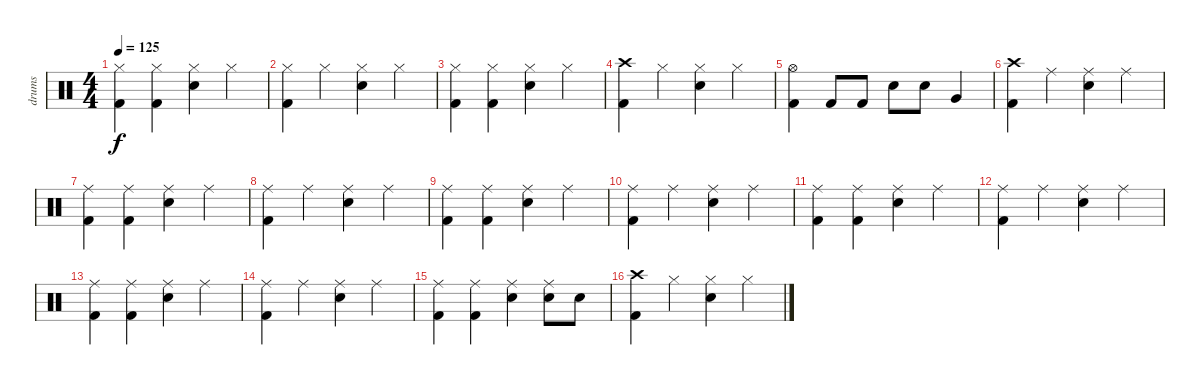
\track ("drums" "drums") {instrument percussion}
\staff {score}
\articulation defaults
\ts (4 4)
\tempo 125
\clef neutral
\ks c
("Kick (hit) 2" "Hi-Hat (closed)").4{dy f} ("Kick (hit) 2" "Hi-Hat (closed)").4 ("Hi-Hat (closed)" "Electric Snare (hit)").4 "Hi-Hat (closed)".4 |
("Kick (hit) 2" "Hi-Hat (closed)").4 "Hi-Hat (closed)".4 ("Hi-Hat (closed)" "Electric Snare (hit)").4 "Hi-Hat (closed)".4 |
("Kick (hit) 2" "Hi-Hat (closed)").4 ("Kick (hit) 2" "Hi-Hat (closed)").4 ("Hi-Hat (closed)" "Electric Snare (hit)").4 "Hi-Hat (closed)".4 |
("Kick (hit) 2" "Crash high (hit)").4 "Hi-Hat (closed)".4 ("Hi-Hat (closed)" "Electric Snare (hit)").4 "Hi-Hat (closed)".4 |
("Kick (hit) 2" "Hi-Hat (open)").4 "Kick (hit) 2".8 "Kick (hit) 2".8 "Electric Snare (hit)".8 "Electric Snare (hit)".8 "Very Low Tom (hit)".4 |
("Kick (hit) 2" "Crash high (hit)").4 "Ride (middle)".4 ("Ride (middle)" "Electric Snare (hit)").4 "Ride (middle)".4 |
("Kick (hit) 2" "Ride (middle)").4 ("Kick (hit) 2" "Ride (middle)").4 ("Ride (middle)" "Electric Snare (hit)").4 "Ride (middle)".4 |
("Kick (hit) 2" "Ride (middle)").4 "Ride (middle)".4 ("Ride (middle)" "Electric Snare (hit)").4 "Ride (middle)".4 |
("Kick (hit) 2" "Ride (middle)").4 ("Kick (hit) 2" "Ride (middle)").4 ("Ride (middle)" "Electric Snare (hit)").4 "Ride (middle)".4 |
("Kick (hit) 2" "Ride (middle)").4 "Ride (middle)".4 ("Ride (middle)" "Electric Snare (hit)").4 "Ride (middle)".4 |
("Kick (hit) 2" "Ride (middle)").4 ("Kick (hit) 2" "Ride (middle)").4 ("Ride (middle)" "Electric Snare (hit)").4 "Ride (middle)".4 |
("Kick (hit) 2" "Ride (middle)").4 "Ride (middle)".4 ("Ride (middle)" "Electric Snare (hit)").4 "Ride (middle)".4 |
("Kick (hit) 2" "Ride (middle)").4 ("Kick (hit) 2" "Ride (middle)").4 ("Ride (middle)" "Electric Snare (hit)").4 "Ride (middle)".4 |
("Kick (hit) 2" "Ride (middle)").4 "Ride (middle)".4 ("Ride (middle)" "Electric Snare (hit)").4 "Ride (middle)".4 |
("Kick (hit) 2" "Ride (middle)").4 ("Kick (hit) 2" "Ride (middle)").4 ("Ride (middle)" "Electric Snare (hit)").4 ("Ride (middle)" "Electric Snare (hit)").8 "Electric Snare (hit)".8 |
("Kick (hit) 2" "Crash high (hit)").4 "Hi-Hat (closed)".4 ("Hi-Hat (closed)" "Electric Snare (hit)").4 "Hi-Hat (closed)".4
